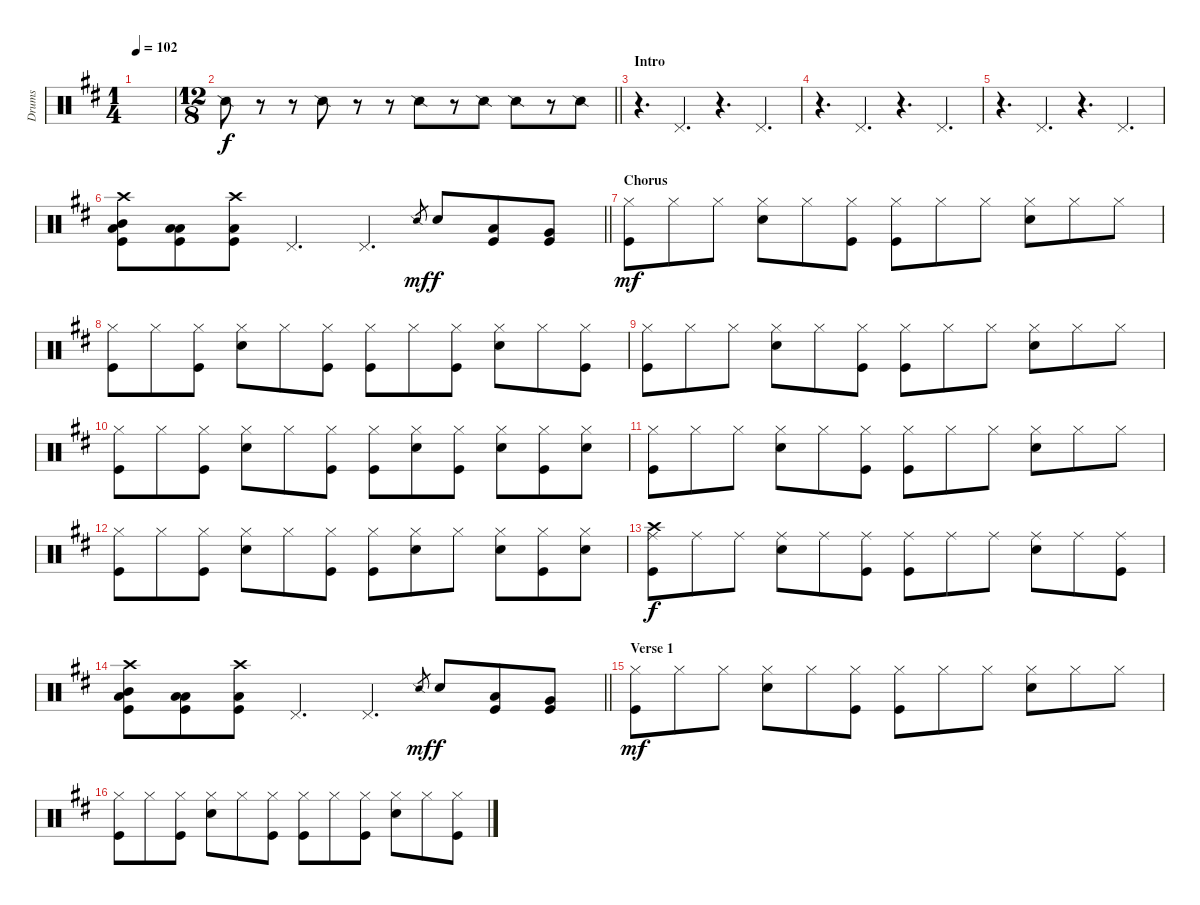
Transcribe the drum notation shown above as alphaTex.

\track ("Drums" "Drums") {instrument percussion}
\staff {score}
\articulation defaults
\ts (1 4)
\tempo 102
\clef neutral
\ks d
|
\ts (12 8)
\barLineRight lightlight "Snare (side stick) 2".8
r.8 r.8 "Snare (side stick) 2".8 r.8 r.8 "Snare (side stick) 2".8 r.8 "Snare (side stick) 2".8 "Snare (side stick) 2".8 r.8 "Snare (side stick) 2".8 |
\section ("" "Intro")
r.4{d} "Pedal Hi-Hat (hit)".4{d} r.4{d} "Pedal Hi-Hat (hit)".4{d} |
r.4{d} "Pedal Hi-Hat (hit)".4{d} r.4{d} "Pedal Hi-Hat (hit)".4{d} |
r.4{d} "Pedal Hi-Hat (hit)".4{d} r.4{d} "Pedal Hi-Hat (hit)".4{d} |
\barLineRight lightlight
("Crash high (hit)" "Mid Tom (hit)" "Low Floor Tom (hit)" "Kick (hit)").8 ("Low Tom (hit)" "Low Floor Tom (hit)" "Kick (hit)").8 ("Crash high (hit)" "Low Floor Tom (hit)" "Kick (hit)").8 "Pedal Hi-Hat (hit)".4{d} "Pedal Hi-Hat (hit)".4{d} "Snare (side stick) 2".8{gr dy mf} "Snare (hit) 2".8{dy f} ("Low Tom (hit)" "Kick (hit)").8 ("Very Low Tom (hit)" "Kick (hit)").8 |
\section ("" "Chorus")
("Hi-Hat (closed)" "Kick (hit)").8{dy mf} "Hi-Hat (closed)".8 "Hi-Hat (closed)".8 ("Hi-Hat (closed)" "Snare (hit) 2").8 "Hi-Hat (closed)".8 ("Hi-Hat (closed)" "Kick (hit)").8 ("Hi-Hat (closed)" "Kick (hit)").8 "Hi-Hat (closed)".8 "Hi-Hat (closed)".8 ("Hi-Hat (closed)" "Snare (hit) 2").8 "Hi-Hat (closed)".8 "Hi-Hat (closed)".8 |
("Hi-Hat (closed)" "Kick (hit)").8 "Hi-Hat (closed)".8 ("Hi-Hat (closed)" "Kick (hit)").8 ("Hi-Hat (closed)" "Snare (hit) 2").8 "Hi-Hat (closed)".8 ("Hi-Hat (closed)" "Kick (hit)").8 ("Hi-Hat (closed)" "Kick (hit)").8 "Hi-Hat (closed)".8 ("Hi-Hat (closed)" "Kick (hit)").8 ("Hi-Hat (closed)" "Snare (hit) 2").8 "Hi-Hat (closed)".8 ("Hi-Hat (closed)" "Kick (hit)").8 |
("Hi-Hat (closed)" "Kick (hit)").8 "Hi-Hat (closed)".8 "Hi-Hat (closed)".8 ("Hi-Hat (closed)" "Snare (hit) 2").8 "Hi-Hat (closed)".8 ("Hi-Hat (closed)" "Kick (hit)").8 ("Hi-Hat (closed)" "Kick (hit)").8 "Hi-Hat (closed)".8 "Hi-Hat (closed)".8 ("Hi-Hat (closed)" "Snare (hit) 2").8 "Hi-Hat (closed)".8 "Hi-Hat (closed)".8 |
("Hi-Hat (closed)" "Kick (hit)").8 "Hi-Hat (closed)".8 ("Hi-Hat (closed)" "Kick (hit)").8 ("Hi-Hat (closed)" "Snare (hit) 2").8 "Hi-Hat (closed)".8 ("Hi-Hat (closed)" "Kick (hit)").8 ("Hi-Hat (closed)" "Kick (hit)").8 ("Hi-Hat (closed)" "Snare (hit) 2").8 ("Hi-Hat (closed)" "Kick (hit)").8 ("Hi-Hat (closed)" "Snare (hit) 2").8 ("Hi-Hat (closed)" "Kick (hit)").8 ("Hi-Hat (closed)" "Snare (hit) 2").8 |
("Hi-Hat (closed)" "Kick (hit)").8 "Hi-Hat (closed)".8 "Hi-Hat (closed)".8 ("Hi-Hat (closed)" "Snare (hit) 2").8 "Hi-Hat (closed)".8 ("Hi-Hat (closed)" "Kick (hit)").8 ("Hi-Hat (closed)" "Kick (hit)").8 "Hi-Hat (closed)".8 "Hi-Hat (closed)".8 ("Hi-Hat (closed)" "Snare (hit) 2").8 "Hi-Hat (closed)".8 "Hi-Hat (closed)".8 |
("Hi-Hat (closed)" "Kick (hit)").8 "Hi-Hat (closed)".8 ("Hi-Hat (closed)" "Kick (hit)").8 ("Hi-Hat (closed)" "Snare (hit) 2").8 "Hi-Hat (closed)".8 ("Hi-Hat (closed)" "Kick (hit)").8 ("Hi-Hat (closed)" "Kick (hit)").8 ("Hi-Hat (closed)" "Snare (hit) 2").8 "Hi-Hat (closed)".8 ("Hi-Hat (closed)" "Snare (hit) 2").8 ("Hi-Hat (closed)" "Kick (hit)").8 ("Hi-Hat (closed)" "Snare (hit) 2").8 |
("Ride (middle)" "Crash high (hit)" "Kick (hit)").8{dy f} "Ride (middle)".8 "Ride (middle)".8 ("Ride (middle)" "Snare (hit) 2").8 "Ride (middle)".8 ("Ride (middle)" "Kick (hit)").8 ("Ride (middle)" "Kick (hit)").8 "Ride (middle)".8 "Ride (middle)".8 ("Ride (middle)" "Snare (hit) 2").8 "Ride (middle)".8 ("Ride (middle)" "Kick (hit)").8 |
\barLineRight lightlight
("Crash high (hit)" "Mid Tom (hit)" "Low Floor Tom (hit)" "Kick (hit)").8 ("Low Tom (hit)" "Low Floor Tom (hit)" "Kick (hit)").8 ("Crash high (hit)" "Low Floor Tom (hit)" "Kick (hit)").8 "Pedal Hi-Hat (hit)".4{d} "Pedal Hi-Hat (hit)".4{d} "Snare (side stick) 2".8{gr dy mf} "Snare (hit) 2".8{dy f} ("Low Tom (hit)" "Kick (hit)").8 ("Very Low Tom (hit)" "Kick (hit)").8 |
\section ("" "Verse 1")
("Hi-Hat (closed)" "Kick (hit)").8{dy mf} "Hi-Hat (closed)".8 "Hi-Hat (closed)".8 ("Hi-Hat (closed)" "Snare (hit) 2").8 "Hi-Hat (closed)".8 ("Hi-Hat (closed)" "Kick (hit)").8 ("Hi-Hat (closed)" "Kick (hit)").8 "Hi-Hat (closed)".8 "Hi-Hat (closed)".8 ("Hi-Hat (closed)" "Snare (hit) 2").8 "Hi-Hat (closed)".8 "Hi-Hat (closed)".8 |
("Hi-Hat (closed)" "Kick (hit)").8 "Hi-Hat (closed)".8 ("Hi-Hat (closed)" "Kick (hit)").8 ("Hi-Hat (closed)" "Snare (hit) 2").8 "Hi-Hat (closed)".8 ("Hi-Hat (closed)" "Kick (hit)").8 ("Hi-Hat (closed)" "Kick (hit)").8 "Hi-Hat (closed)".8 ("Hi-Hat (closed)" "Kick (hit)").8 ("Hi-Hat (closed)" "Snare (hit) 2").8 "Hi-Hat (closed)".8 ("Hi-Hat (closed)" "Kick (hit)").8
